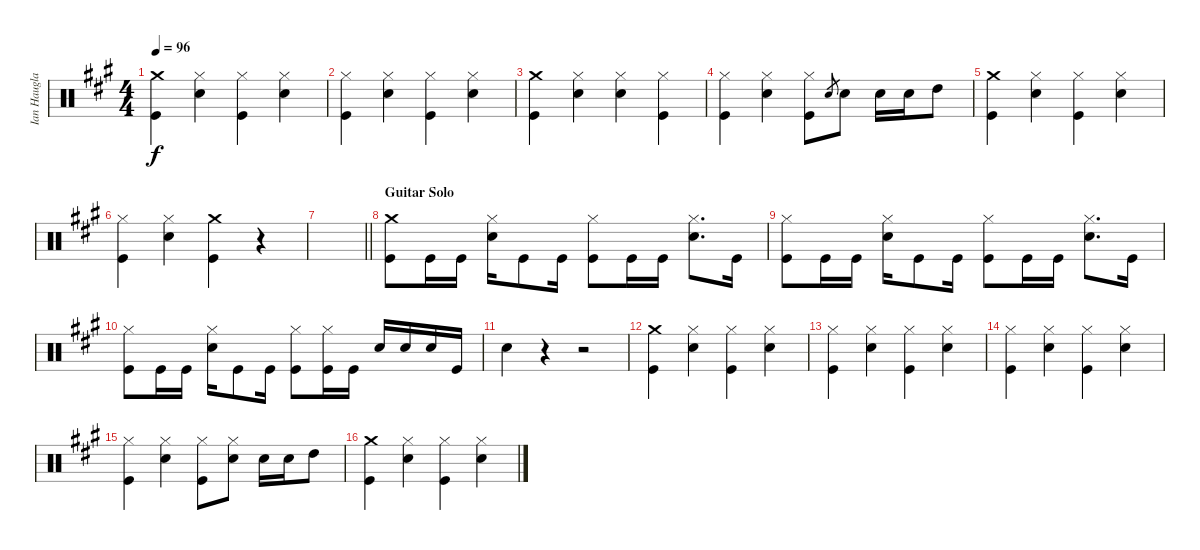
\track ("Ian Haugland" "Ian Haugla") {instrument percussion}
\staff {score}
\articulation defaults
\ts (4 4)
\tempo 96
\clef neutral
\ks a
("Crash medium (hit)" "Kick (hit)").4{dy f} ("Hi-Hat (closed)" "Snare (hit) 2").4 ("Hi-Hat (closed)" "Kick (hit)").4 ("Hi-Hat (closed)" "Snare (hit) 2").4 |
("Hi-Hat (closed)" "Kick (hit)").4 ("Hi-Hat (closed)" "Snare (hit) 2").4 ("Hi-Hat (closed)" "Kick (hit)").4 ("Hi-Hat (closed)" "Snare (hit) 2").4 |
("Crash medium (hit)" "Kick (hit)").4 ("Hi-Hat (closed)" "Snare (hit) 2").4 ("Hi-Hat (closed)" "Snare (hit) 2").4 ("Hi-Hat (closed)" "Kick (hit)").4 |
("Hi-Hat (closed)" "Kick (hit)").4 ("Hi-Hat (closed)" "Snare (hit) 2").4 ("Hi-Hat (closed)" "Kick (hit)").8 "Snare (hit) 2".8{gr} "Snare (hit) 2".8 "Snare (hit) 2".16 "Snare (hit) 2".16 "High Tom (hit)".8 |
("Crash medium (hit)" "Kick (hit)").4 ("Hi-Hat (closed)" "Snare (hit) 2").4 ("Hi-Hat (closed)" "Kick (hit)").4 ("Hi-Hat (closed)" "Snare (hit) 2").4 |
("Hi-Hat (closed)" "Kick (hit)").4 ("Hi-Hat (closed)" "Snare (hit) 2").4 ("Crash medium (hit)" "Kick (hit)").4 r.4 |
\barLineRight lightlight
|
\section ("" "Guitar Solo")
("Crash medium (hit)" "Kick (hit)").8 "Kick (hit)".16 "Kick (hit)".16 ("Hi-Hat (closed)" "Snare (hit) 2").16 "Kick (hit)".8 "Kick (hit)".16 ("Hi-Hat (closed)" "Kick (hit)").8 "Kick (hit)".16 "Kick (hit)".16 ("Hi-Hat (closed)" "Snare (hit) 2").8{d} "Kick (hit)".16 |
("Hi-Hat (closed)" "Kick (hit)").8 "Kick (hit)".16 "Kick (hit)".16 ("Hi-Hat (closed)" "Snare (hit) 2").16 "Kick (hit)".8 "Kick (hit)".16 ("Hi-Hat (closed)" "Kick (hit)").8 "Kick (hit)".16 "Kick (hit)".16 ("Hi-Hat (closed)" "Snare (hit) 2").8{d} "Kick (hit)".16 |
("Hi-Hat (closed)" "Kick (hit)").8 "Kick (hit)".16 "Kick (hit)".16 ("Hi-Hat (closed)" "Snare (hit) 2").16 "Kick (hit)".8 "Kick (hit)".16 ("Hi-Hat (closed)" "Kick (hit)").8 ("Hi-Hat (closed)" "Kick (hit)").16 "Kick (hit)".16 "Snare (hit) 2".16 "Snare (hit) 2".16 "Snare (hit) 2".16 "Kick (hit)".16 |
"Snare (hit) 2".4 r.4 r.2 |
("Crash medium (hit)" "Kick (hit)").4 ("Hi-Hat (closed)" "Snare (hit) 2").4 ("Hi-Hat (closed)" "Kick (hit)").4 ("Hi-Hat (closed)" "Snare (hit) 2").4 |
("Hi-Hat (closed)" "Kick (hit)").4 ("Hi-Hat (closed)" "Snare (hit) 2").4 ("Hi-Hat (closed)" "Kick (hit)").4 ("Hi-Hat (closed)" "Snare (hit) 2").4 |
("Hi-Hat (closed)" "Kick (hit)").4 ("Hi-Hat (closed)" "Snare (hit) 2").4 ("Hi-Hat (closed)" "Kick (hit)").4 ("Hi-Hat (closed)" "Snare (hit) 2").4 |
("Hi-Hat (closed)" "Kick (hit)").4 ("Hi-Hat (closed)" "Snare (hit) 2").4 ("Hi-Hat (closed)" "Kick (hit)").8 ("Hi-Hat (closed)" "Snare (hit) 2").8 "Snare (hit) 2".16 "Snare (hit) 2".16 "High Tom (hit)".8 |
("Crash medium (hit)" "Kick (hit)").4 ("Hi-Hat (closed)" "Snare (hit) 2").4 ("Hi-Hat (closed)" "Kick (hit)").4 ("Hi-Hat (closed)" "Snare (hit) 2").4
